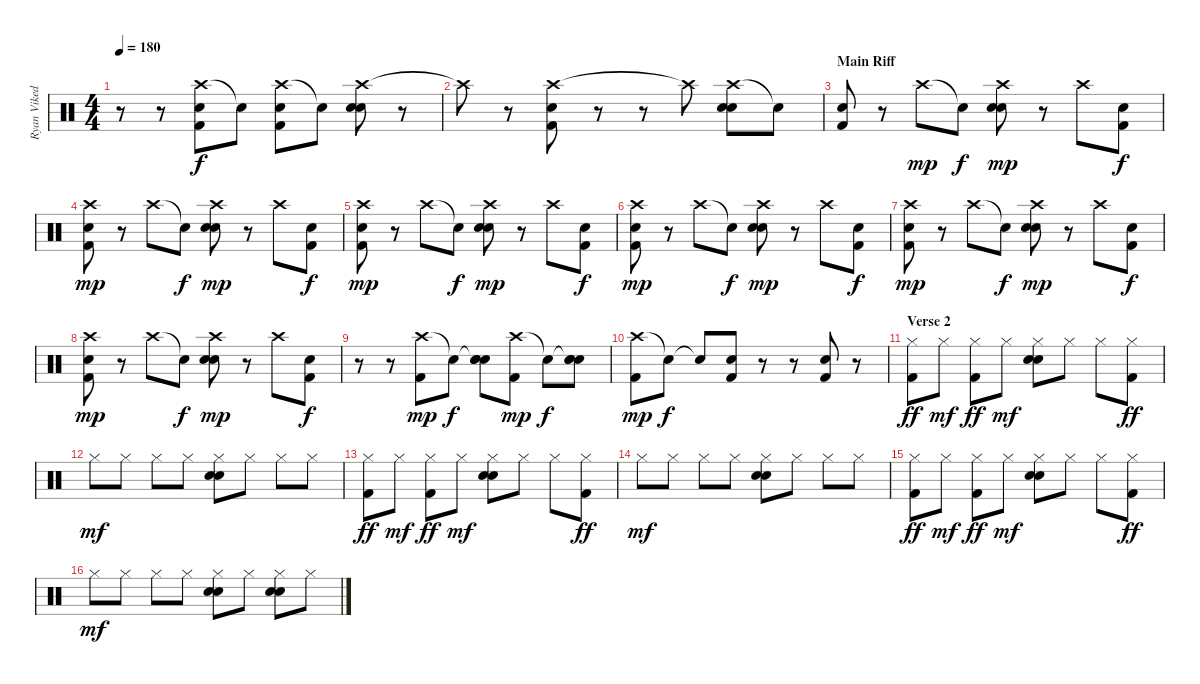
\track ("Ryan Vikedal(drums)" "Ryan Viked") {instrument percussion}
\staff {score}
\articulation defaults
\ts (4 4)
\tempo 180
\clef neutral
\ks c
r.8{dy f} r.8 ("Crash high (hit)" "Electric Snare (hit)" "Kick (hit) 2").8 "Snare (hit)"{t}.8 ("Crash high (hit)" "Electric Snare (hit)" "Kick (hit) 2").8 "Snare (hit)"{t}.8 ("Crash high (hit)" "Electric Snare (hit)" "Electric Snare (hit)").8 r.8 |
"Crash high (hit)"{t}.8 r.8 ("Crash high (hit)" "Electric Snare (hit)" "Kick (hit) 2").8 r.8 r.8 "Crash high (hit)"{t}.8 ("Crash high (hit)" "Electric Snare (hit)" "Electric Snare (hit)").8 "Snare (hit)"{t}.8 |
\section ("" "Main Riff")
("Electric Snare (hit)" "Kick (hit) 2").8 r.8 "Crash high (hit)".8{dy mp} "Snare (hit)"{t}.8{dy f} ("Crash high (hit)" "Electric Snare (hit)" "Electric Snare (hit)").8{dy mp} r.8 "Crash high (hit)".8 ("Kick (hit) 2" "Electric Snare (hit)").8{dy f} |
("Crash high (hit)" "Electric Snare (hit)" "Kick (hit) 2").8{dy mp} r.8 "Crash high (hit)".8 "Snare (hit)"{t}.8{dy f} ("Crash high (hit)" "Electric Snare (hit)" "Electric Snare (hit)").8{dy mp} r.8 "Crash high (hit)".8 ("Kick (hit) 2" "Electric Snare (hit)").8{dy f} |
("Crash high (hit)" "Electric Snare (hit)" "Kick (hit) 2").8{dy mp} r.8 "Crash high (hit)".8 "Snare (hit)"{t}.8{dy f} ("Crash high (hit)" "Electric Snare (hit)" "Electric Snare (hit)").8{dy mp} r.8 "Crash high (hit)".8 ("Kick (hit) 2" "Electric Snare (hit)").8{dy f} |
("Crash high (hit)" "Electric Snare (hit)" "Kick (hit) 2").8{dy mp} r.8 "Crash high (hit)".8 "Snare (hit)"{t}.8{dy f} ("Crash high (hit)" "Electric Snare (hit)" "Electric Snare (hit)").8{dy mp} r.8 "Crash high (hit)".8 ("Kick (hit) 2" "Electric Snare (hit)").8{dy f} |
("Crash high (hit)" "Electric Snare (hit)" "Kick (hit) 2").8{dy mp} r.8 "Crash high (hit)".8 "Snare (hit)"{t}.8{dy f} ("Crash high (hit)" "Electric Snare (hit)" "Electric Snare (hit)").8{dy mp} r.8 "Crash high (hit)".8 ("Kick (hit) 2" "Electric Snare (hit)").8{dy f} |
("Crash high (hit)" "Electric Snare (hit)" "Kick (hit) 2").8{dy mp} r.8 "Crash high (hit)".8 "Snare (hit)"{t}.8{dy f} ("Crash high (hit)" "Electric Snare (hit)" "Electric Snare (hit)").8{dy mp} r.8 "Crash high (hit)".8 ("Kick (hit) 2" "Electric Snare (hit)").8{dy f} |
r.8 r.8 ("Crash high (hit)" "Kick (hit) 2").8{dy mp} "Snare (hit)"{t}.8{dy f} ("Snare (hit)"{t} "Electric Snare (hit)" "Electric Snare (hit)").8 ("Crash high (hit)" "Kick (hit) 2").8{dy mp} "Snare (hit)"{t}.8{dy f} ("Snare (hit)"{t} "Electric Snare (hit)" "Electric Snare (hit)").8 |
("Crash high (hit)" "Kick (hit) 2").8{dy mp} "Snare (hit)"{t}.8{dy f} "Snare (hit)"{t}.8 ("Electric Snare (hit)" "Kick (hit) 2").8 r.8 r.8 ("Electric Snare (hit)" "Kick (hit) 2").8 r.8 |
\section ("" "Verse 2")
("Hi-Hat (closed)" "Kick (hit) 2").8{dy ff} "Hi-Hat (closed)".8{dy mf} ("Hi-Hat (closed)" "Kick (hit) 2").8{dy ff} "Hi-Hat (closed)".8{dy mf} ("Hi-Hat (closed)" "Electric Snare (hit)" "Electric Snare (hit)").8 "Hi-Hat (closed)".8 "Hi-Hat (closed)".8 ("Hi-Hat (closed)" "Kick (hit) 2").8{dy ff} |
"Hi-Hat (closed)".8{dy mf} "Hi-Hat (closed)".8 "Hi-Hat (closed)".8 "Hi-Hat (closed)".8 ("Hi-Hat (closed)" "Electric Snare (hit)" "Electric Snare (hit)").8 "Hi-Hat (closed)".8 "Hi-Hat (closed)".8 "Hi-Hat (closed)".8 |
("Hi-Hat (closed)" "Kick (hit) 2").8{dy ff} "Hi-Hat (closed)".8{dy mf} ("Hi-Hat (closed)" "Kick (hit) 2").8{dy ff} "Hi-Hat (closed)".8{dy mf} ("Hi-Hat (closed)" "Electric Snare (hit)" "Electric Snare (hit)").8 "Hi-Hat (closed)".8 "Hi-Hat (closed)".8 ("Hi-Hat (closed)" "Kick (hit) 2").8{dy ff} |
"Hi-Hat (closed)".8{dy mf} "Hi-Hat (closed)".8 "Hi-Hat (closed)".8 "Hi-Hat (closed)".8 ("Hi-Hat (closed)" "Electric Snare (hit)" "Electric Snare (hit)").8 "Hi-Hat (closed)".8 "Hi-Hat (closed)".8 "Hi-Hat (closed)".8 |
("Hi-Hat (closed)" "Kick (hit) 2").8{dy ff} "Hi-Hat (closed)".8{dy mf} ("Hi-Hat (closed)" "Kick (hit) 2").8{dy ff} "Hi-Hat (closed)".8{dy mf} ("Hi-Hat (closed)" "Electric Snare (hit)" "Electric Snare (hit)").8 "Hi-Hat (closed)".8 "Hi-Hat (closed)".8 ("Hi-Hat (closed)" "Kick (hit) 2").8{dy ff} |
"Hi-Hat (closed)".8{dy mf} "Hi-Hat (closed)".8 "Hi-Hat (closed)".8 "Hi-Hat (closed)".8 ("Hi-Hat (closed)" "Electric Snare (hit)" "Electric Snare (hit)").8 "Hi-Hat (closed)".8 ("Hi-Hat (closed)" "Electric Snare (hit)" "Electric Snare (hit)").8 "Hi-Hat (closed)".8
